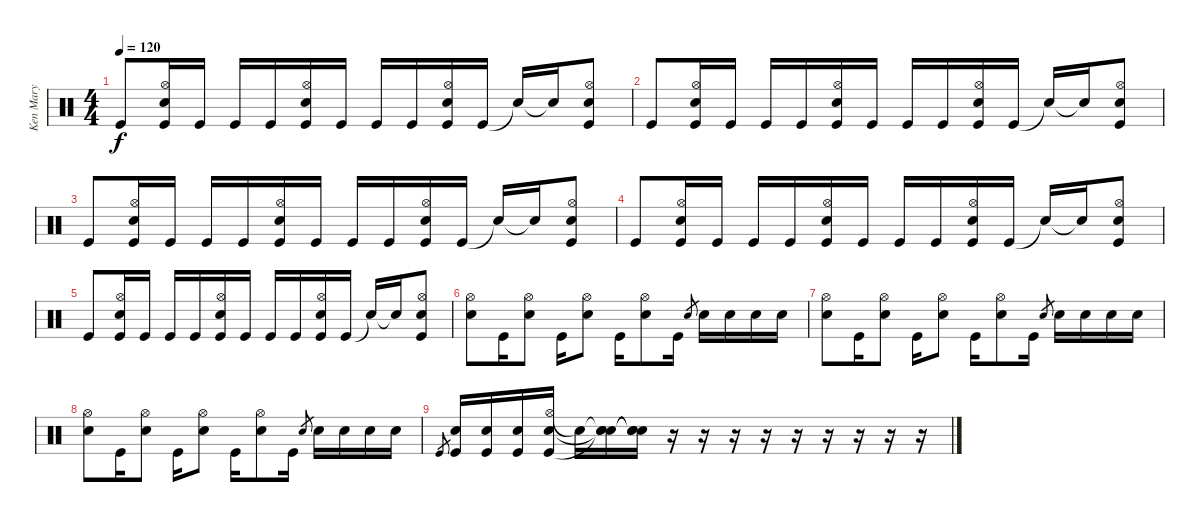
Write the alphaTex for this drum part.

\track ("Ken Mary" "Ken Mary") {instrument percussion}
\staff {score}
\articulation defaults
\ts (4 4)
\tempo 120
\clef neutral
\ks c "Kick (hit)".8{dy f}
("Hi-Hat (open)" "Snare (hit) 2" "Kick (hit)").16 "Kick (hit)".16 "Kick (hit)".16 "Kick (hit)".16 ("Hi-Hat (open)" "Snare (hit) 2" "Kick (hit)").16 "Kick (hit)".16 "Kick (hit)".16 "Kick (hit)".16 ("Hi-Hat (open)" "Snare (hit) 2" "Kick (hit)").16 "Kick (hit)".16 "Snare (hit)"{t}.16 "Snare (hit)"{t}.16 ("Snare (hit) 2" "Hi-Hat (open)" "Kick (hit)").8 |
"Kick (hit)".8 ("Hi-Hat (open)" "Snare (hit) 2" "Kick (hit)").16 "Kick (hit)".16 "Kick (hit)".16 "Kick (hit)".16 ("Hi-Hat (open)" "Snare (hit) 2" "Kick (hit)").16 "Kick (hit)".16 "Kick (hit)".16 "Kick (hit)".16 ("Hi-Hat (open)" "Snare (hit) 2" "Kick (hit)").16 "Kick (hit)".16 "Snare (hit)"{t}.16 "Snare (hit)"{t}.16 ("Snare (hit) 2" "Hi-Hat (open)" "Kick (hit)").8 |
"Kick (hit)".8 ("Hi-Hat (open)" "Snare (hit) 2" "Kick (hit)").16 "Kick (hit)".16 "Kick (hit)".16 "Kick (hit)".16 ("Hi-Hat (open)" "Snare (hit) 2" "Kick (hit)").16 "Kick (hit)".16 "Kick (hit)".16 "Kick (hit)".16 ("Hi-Hat (open)" "Snare (hit) 2" "Kick (hit)").16 "Kick (hit)".16 "Snare (hit)"{t}.16 "Snare (hit)"{t}.16 ("Snare (hit) 2" "Hi-Hat (open)" "Kick (hit)").8 |
"Kick (hit)".8 ("Hi-Hat (open)" "Snare (hit) 2" "Kick (hit)").16 "Kick (hit)".16 "Kick (hit)".16 "Kick (hit)".16 ("Hi-Hat (open)" "Snare (hit) 2" "Kick (hit)").16 "Kick (hit)".16 "Kick (hit)".16 "Kick (hit)".16 ("Hi-Hat (open)" "Snare (hit) 2" "Kick (hit)").16 "Kick (hit)".16 "Snare (hit)"{t}.16 "Snare (hit)"{t}.16 ("Snare (hit) 2" "Hi-Hat (open)" "Kick (hit)").8 |
"Kick (hit)".8 ("Hi-Hat (open)" "Snare (hit) 2" "Kick (hit)").16 "Kick (hit)".16 "Kick (hit)".16 "Kick (hit)".16 ("Hi-Hat (open)" "Snare (hit) 2" "Kick (hit)").16 "Kick (hit)".16 "Kick (hit)".16 "Kick (hit)".16 ("Hi-Hat (open)" "Snare (hit) 2" "Kick (hit)").16 "Kick (hit)".16 "Snare (hit)"{t}.16 "Snare (hit)"{t}.16 ("Snare (hit) 2" "Hi-Hat (open)" "Kick (hit)").8 |
("Hi-Hat (open)" "Snare (hit) 2").8 "Kick (hit)".16 ("Hi-Hat (open)" "Snare (hit) 2").8 "Kick (hit)".16 ("Hi-Hat (open)" "Snare (hit) 2").8 "Kick (hit)".16 ("Hi-Hat (open)" "Snare (hit) 2").8 "Kick (hit)".16 "Snare (hit) 2".8{gr} "Snare (hit) 2".16 "Snare (hit) 2".16 "Snare (hit) 2".16 "Snare (hit) 2".16 |
("Hi-Hat (open)" "Snare (hit) 2").8 "Kick (hit)".16 ("Hi-Hat (open)" "Snare (hit) 2").8 "Kick (hit)".16 ("Hi-Hat (open)" "Snare (hit) 2").8 "Kick (hit)".16 ("Hi-Hat (open)" "Snare (hit) 2").8 "Kick (hit)".16 "Snare (hit) 2".8{gr} "Snare (hit) 2".16 "Snare (hit) 2".16 "Snare (hit) 2".16 "Snare (hit) 2".16 |
("Hi-Hat (open)" "Snare (hit) 2").8 "Kick (hit)".16 ("Hi-Hat (open)" "Snare (hit) 2").8 "Kick (hit)".16 ("Hi-Hat (open)" "Snare (hit) 2").8 "Kick (hit)".16 ("Hi-Hat (open)" "Snare (hit) 2").8 "Kick (hit)".16 "Snare (hit) 2".8{gr} "Snare (hit) 2".16 "Snare (hit) 2".16 "Snare (hit) 2".16 "Snare (hit) 2".16 |
"Kick (hit)".8{gr} ("Snare (hit) 2" "Kick (hit)").16 ("Snare (hit) 2" "Kick (hit)").16 ("Snare (hit) 2" "Kick (hit)").16 ("Hi-Hat (open)" "Snare (hit) 2" "Kick (hit)").16 "Snare (hit)"{t}.16 ("Snare (hit)"{t} "Snare (hit)"{t} "Snare (hit)"{t}).16 ("Snare (hit)"{t} "Snare (hit)"{t} "Snare (hit)"{t}).16 r.16 r.16 r.16 r.16 r.16 r.16 r.16 r.16 r.16
